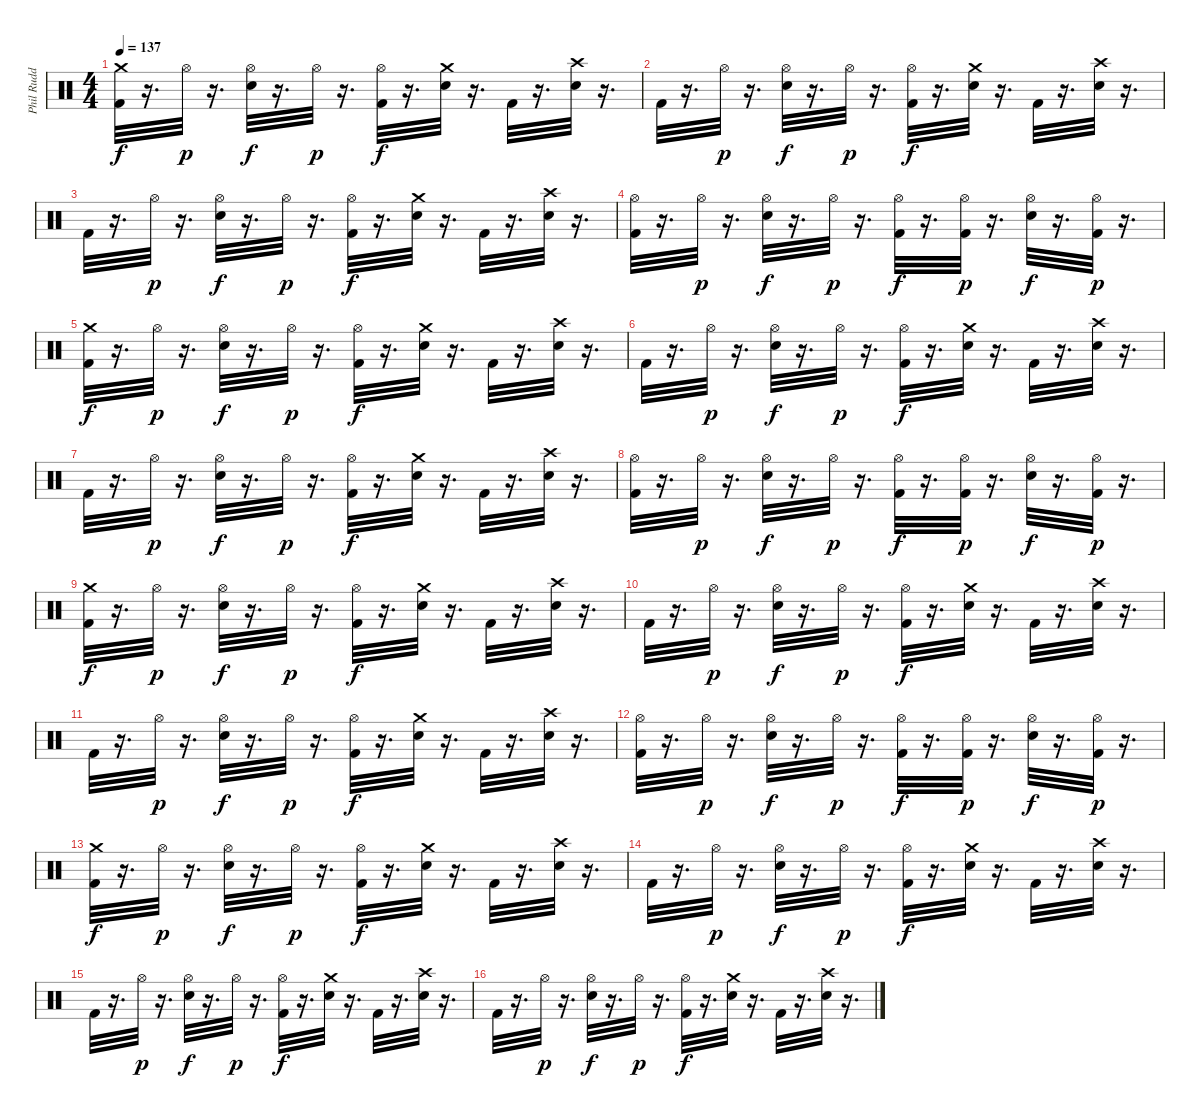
\track ("Phil Rudd" "Phil Rudd") {instrument percussion}
\staff
\articulation defaults
\ts (4 4)
\tempo 137
\clef neutral
\ks c
("Crash medium (hit)" "Kick (hit) 2").32{dy f} r.16{d} "Hi-Hat (open)".32{dy p} r.16{d} ("Hi-Hat (open)" "Electric Snare (hit)").32{dy f} r.16{d} "Hi-Hat (open)".32{dy p} r.16{d} ("Hi-Hat (open)" "Kick (hit) 2").32{dy f} r.16{d} ("Crash medium (hit)" "Electric Snare (hit)").32 r.16{d} "Kick (hit) 2".32 r.16{d} ("Crash high (hit)" "Electric Snare (hit)").32 r.16{d} |
"Kick (hit) 2".32 r.16{d} "Hi-Hat (open)".32{dy p} r.16{d} ("Hi-Hat (open)" "Electric Snare (hit)").32{dy f} r.16{d} "Hi-Hat (open)".32{dy p} r.16{d} ("Kick (hit) 2" "Hi-Hat (open)").32{dy f} r.16{d} ("Electric Snare (hit)" "Crash medium (hit)").32 r.16{d} "Kick (hit) 2".32 r.16{d} ("Electric Snare (hit)" "Crash high (hit)").32 r.16{d} |
"Kick (hit) 2".32 r.16{d} "Hi-Hat (open)".32{dy p} r.16{d} ("Hi-Hat (open)" "Electric Snare (hit)").32{dy f} r.16{d} "Hi-Hat (open)".32{dy p} r.16{d} ("Hi-Hat (open)" "Kick (hit) 2").32{dy f} r.16{d} ("Crash medium (hit)" "Electric Snare (hit)").32 r.16{d} "Kick (hit) 2".32 r.16{d} ("Crash high (hit)" "Electric Snare (hit)").32 r.16{d} |
("Kick (hit) 2" "Hi-Hat (open)").32 r.16{d} "Hi-Hat (open)".32{dy p} r.16{d} ("Hi-Hat (open)" "Electric Snare (hit)").32{dy f} r.16{d} "Hi-Hat (open)".32{dy p} r.16{d} ("Hi-Hat (open)" "Kick (hit) 2").32{dy f} r.16{d} ("Hi-Hat (open)" "Kick (hit) 2").32{dy p} r.16{d} ("Hi-Hat (open)" "Electric Snare (hit)").32{dy f} r.16{d} ("Hi-Hat (open)" "Kick (hit) 2").32{dy p} r.16{d} |
("Crash medium (hit)" "Kick (hit) 2").32{dy f} r.16{d} "Hi-Hat (open)".32{dy p} r.16{d} ("Hi-Hat (open)" "Electric Snare (hit)").32{dy f} r.16{d} "Hi-Hat (open)".32{dy p} r.16{d} ("Hi-Hat (open)" "Kick (hit) 2").32{dy f} r.16{d} ("Crash medium (hit)" "Electric Snare (hit)").32 r.16{d} "Kick (hit) 2".32 r.16{d} ("Crash high (hit)" "Electric Snare (hit)").32 r.16{d} |
"Kick (hit) 2".32 r.16{d} "Hi-Hat (open)".32{dy p} r.16{d} ("Hi-Hat (open)" "Electric Snare (hit)").32{dy f} r.16{d} "Hi-Hat (open)".32{dy p} r.16{d} ("Kick (hit) 2" "Hi-Hat (open)").32{dy f} r.16{d} ("Electric Snare (hit)" "Crash medium (hit)").32 r.16{d} "Kick (hit) 2".32 r.16{d} ("Electric Snare (hit)" "Crash high (hit)").32 r.16{d} |
"Kick (hit) 2".32 r.16{d} "Hi-Hat (open)".32{dy p} r.16{d} ("Hi-Hat (open)" "Electric Snare (hit)").32{dy f} r.16{d} "Hi-Hat (open)".32{dy p} r.16{d} ("Hi-Hat (open)" "Kick (hit) 2").32{dy f} r.16{d} ("Crash medium (hit)" "Electric Snare (hit)").32 r.16{d} "Kick (hit) 2".32 r.16{d} ("Crash high (hit)" "Electric Snare (hit)").32 r.16{d} |
("Kick (hit) 2" "Hi-Hat (open)").32 r.16{d} "Hi-Hat (open)".32{dy p} r.16{d} ("Hi-Hat (open)" "Electric Snare (hit)").32{dy f} r.16{d} "Hi-Hat (open)".32{dy p} r.16{d} ("Hi-Hat (open)" "Kick (hit) 2").32{dy f} r.16{d} ("Hi-Hat (open)" "Kick (hit) 2").32{dy p} r.16{d} ("Hi-Hat (open)" "Electric Snare (hit)").32{dy f} r.16{d} ("Hi-Hat (open)" "Kick (hit) 2").32{dy p} r.16{d} |
("Crash medium (hit)" "Kick (hit) 2").32{dy f} r.16{d} "Hi-Hat (open)".32{dy p} r.16{d} ("Hi-Hat (open)" "Electric Snare (hit)").32{dy f} r.16{d} "Hi-Hat (open)".32{dy p} r.16{d} ("Hi-Hat (open)" "Kick (hit) 2").32{dy f} r.16{d} ("Crash medium (hit)" "Electric Snare (hit)").32 r.16{d} "Kick (hit) 2".32 r.16{d} ("Crash high (hit)" "Electric Snare (hit)").32 r.16{d} |
"Kick (hit) 2".32 r.16{d} "Hi-Hat (open)".32{dy p} r.16{d} ("Hi-Hat (open)" "Electric Snare (hit)").32{dy f} r.16{d} "Hi-Hat (open)".32{dy p} r.16{d} ("Kick (hit) 2" "Hi-Hat (open)").32{dy f} r.16{d} ("Electric Snare (hit)" "Crash medium (hit)").32 r.16{d} "Kick (hit) 2".32 r.16{d} ("Electric Snare (hit)" "Crash high (hit)").32 r.16{d} |
"Kick (hit) 2".32 r.16{d} "Hi-Hat (open)".32{dy p} r.16{d} ("Hi-Hat (open)" "Electric Snare (hit)").32{dy f} r.16{d} "Hi-Hat (open)".32{dy p} r.16{d} ("Hi-Hat (open)" "Kick (hit) 2").32{dy f} r.16{d} ("Crash medium (hit)" "Electric Snare (hit)").32 r.16{d} "Kick (hit) 2".32 r.16{d} ("Crash high (hit)" "Electric Snare (hit)").32 r.16{d} |
("Kick (hit) 2" "Hi-Hat (open)").32 r.16{d} "Hi-Hat (open)".32{dy p} r.16{d} ("Hi-Hat (open)" "Electric Snare (hit)").32{dy f} r.16{d} "Hi-Hat (open)".32{dy p} r.16{d} ("Hi-Hat (open)" "Kick (hit) 2").32{dy f} r.16{d} ("Hi-Hat (open)" "Kick (hit) 2").32{dy p} r.16{d} ("Hi-Hat (open)" "Electric Snare (hit)").32{dy f} r.16{d} ("Hi-Hat (open)" "Kick (hit) 2").32{dy p} r.16{d} |
("Crash medium (hit)" "Kick (hit) 2").32{dy f} r.16{d} "Hi-Hat (open)".32{dy p} r.16{d} ("Hi-Hat (open)" "Electric Snare (hit)").32{dy f} r.16{d} "Hi-Hat (open)".32{dy p} r.16{d} ("Hi-Hat (open)" "Kick (hit) 2").32{dy f} r.16{d} ("Electric Snare (hit)" "Crash medium (hit)").32 r.16{d} "Kick (hit) 2".32 r.16{d} ("Electric Snare (hit)" "Crash high (hit)").32 r.16{d} |
"Kick (hit) 2".32 r.16{d} "Hi-Hat (open)".32{dy p} r.16{d} ("Hi-Hat (open)" "Electric Snare (hit)").32{dy f} r.16{d} "Hi-Hat (open)".32{dy p} r.16{d} ("Hi-Hat (open)" "Kick (hit) 2").32{dy f} r.16{d} ("Crash medium (hit)" "Electric Snare (hit)").32 r.16{d} "Kick (hit) 2".32 r.16{d} ("Crash high (hit)" "Electric Snare (hit)").32 r.16{d} |
"Kick (hit) 2".32 r.16{d} "Hi-Hat (open)".32{dy p} r.16{d} ("Hi-Hat (open)" "Electric Snare (hit)").32{dy f} r.16{d} "Hi-Hat (open)".32{dy p} r.16{d} ("Hi-Hat (open)" "Kick (hit) 2").32{dy f} r.16{d} ("Crash medium (hit)" "Electric Snare (hit)").32 r.16{d} "Kick (hit) 2".32 r.16{d} ("Crash high (hit)" "Electric Snare (hit)").32 r.16{d} |
"Kick (hit) 2".32 r.16{d} "Hi-Hat (open)".32{dy p} r.16{d} ("Hi-Hat (open)" "Electric Snare (hit)").32{dy f} r.16{d} "Hi-Hat (open)".32{dy p} r.16{d} ("Hi-Hat (open)" "Kick (hit) 2").32{dy f} r.16{d} ("Crash medium (hit)" "Electric Snare (hit)").32 r.16{d} "Kick (hit) 2".32 r.16{d} ("Crash high (hit)" "Electric Snare (hit)").32 r.16{d}
